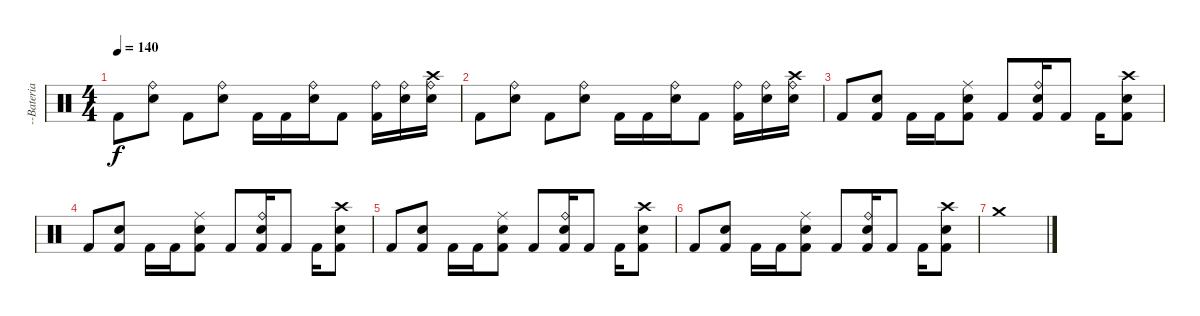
\track ("--Bateria de la ostia" "--Bateria ") {instrument percussion}
\staff {score}
\articulation defaults
\ts (4 4)
\tempo 140
\clef neutral
\ks c "Kick (hit) 2".8{dy f}
("Ride (bell)" "Snare (hit) 2").8 "Kick (hit) 2".8 ("Ride (bell)" "Snare (hit) 2").8 "Kick (hit) 2".16 "Kick (hit) 2".16 ("Ride (bell)" "Snare (hit) 2").16 "Kick (hit) 2".8 ("Ride (bell)" "Kick (hit) 2").16 ("Ride (bell)" "Snare (hit) 2").16 ("Ride (bell)" "Crash high (hit)" "Snare (hit) 2").16 |
"Kick (hit) 2".8 ("Ride (bell)" "Snare (hit) 2").8 "Kick (hit) 2".8 ("Ride (bell)" "Snare (hit) 2").8 "Kick (hit) 2".16 "Kick (hit) 2".16 ("Ride (bell)" "Snare (hit) 2").16 "Kick (hit) 2".8 ("Ride (bell)" "Kick (hit) 2").16 ("Ride (bell)" "Snare (hit) 2").16 ("Ride (bell)" "Crash high (hit)" "Snare (hit) 2").16 |
"Kick (hit) 2".8 ("Snare (hit) 2" "Kick (hit) 2").8 "Kick (hit) 2".16 "Kick (hit) 2".16 ("Ride (middle)" "Snare (hit) 2" "Kick (hit) 2").8 "Kick (hit) 2".8 ("Ride (bell)" "Snare (hit) 2" "Kick (hit) 2").16 "Kick (hit) 2".8 "Kick (hit) 2".16 ("Crash high (hit)" "Snare (hit) 2" "Kick (hit) 2").8 |
"Kick (hit) 2".8 ("Snare (hit) 2" "Kick (hit) 2").8 "Kick (hit) 2".16 "Kick (hit) 2".16 ("Ride (middle)" "Snare (hit) 2" "Kick (hit) 2").8 "Kick (hit) 2".8 ("Ride (bell)" "Snare (hit) 2" "Kick (hit) 2").16 "Kick (hit) 2".8 "Kick (hit) 2".16 ("Crash high (hit)" "Snare (hit) 2" "Kick (hit) 2").8 |
"Kick (hit) 2".8 ("Snare (hit) 2" "Kick (hit) 2").8 "Kick (hit) 2".16 "Kick (hit) 2".16 ("Ride (middle)" "Snare (hit) 2" "Kick (hit) 2").8 "Kick (hit) 2".8 ("Ride (bell)" "Snare (hit) 2" "Kick (hit) 2").16 "Kick (hit) 2".8 "Kick (hit) 2".16 ("Crash high (hit)" "Snare (hit) 2" "Kick (hit) 2").8 |
"Kick (hit) 2".8 ("Snare (hit) 2" "Kick (hit) 2").8 "Kick (hit) 2".16 "Kick (hit) 2".16 ("Ride (middle)" "Snare (hit) 2" "Kick (hit) 2").8 "Kick (hit) 2".8 ("Ride (bell)" "Snare (hit) 2" "Kick (hit) 2").16 "Kick (hit) 2".8 "Kick (hit) 2".16 ("Crash high (hit)" "Snare (hit) 2" "Kick (hit) 2").8 |
"Crash medium (hit)".1
